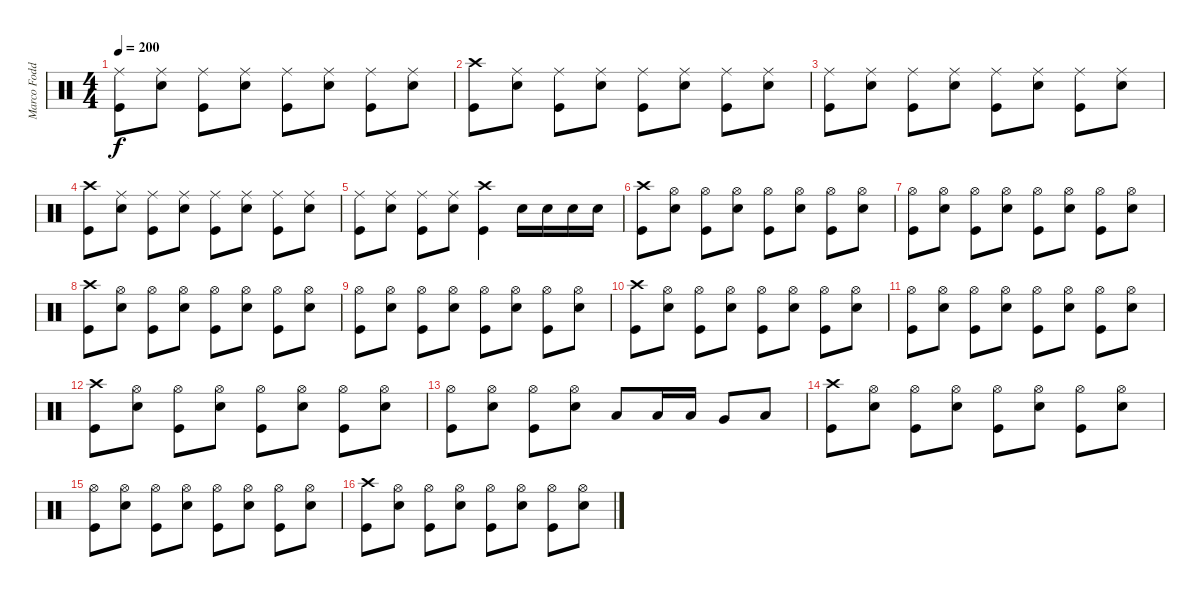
\track ("Marco Foddis" "Marco Fodd") {instrument percussion}
\staff {score}
\articulation defaults
\ts (4 4)
\tempo 200
\clef neutral
\ks c
("Ride (middle)" "Kick (hit)").8{dy f} ("Ride (middle)" "Snare (hit) 2").8 ("Ride (middle)" "Kick (hit)").8 ("Ride (middle)" "Snare (hit) 2").8 ("Ride (middle)" "Kick (hit)").8 ("Ride (middle)" "Snare (hit) 2").8 ("Ride (middle)" "Kick (hit)").8 ("Ride (middle)" "Snare (hit) 2").8 |
("Crash high (hit)" "Kick (hit)").8 ("Ride (middle)" "Snare (hit) 2").8 ("Ride (middle)" "Kick (hit)").8 ("Ride (middle)" "Snare (hit) 2").8 ("Ride (middle)" "Kick (hit)").8 ("Ride (middle)" "Snare (hit) 2").8 ("Ride (middle)" "Kick (hit)").8 ("Ride (middle)" "Snare (hit) 2").8 |
("Ride (middle)" "Kick (hit)").8 ("Ride (middle)" "Snare (hit) 2").8 ("Ride (middle)" "Kick (hit)").8 ("Ride (middle)" "Snare (hit) 2").8 ("Ride (middle)" "Kick (hit)").8 ("Ride (middle)" "Snare (hit) 2").8 ("Ride (middle)" "Kick (hit)").8 ("Ride (middle)" "Snare (hit) 2").8 |
("Crash high (hit)" "Kick (hit)").8 ("Ride (middle)" "Snare (hit) 2").8 ("Ride (middle)" "Kick (hit)").8 ("Ride (middle)" "Snare (hit) 2").8 ("Ride (middle)" "Kick (hit)").8 ("Ride (middle)" "Snare (hit) 2").8 ("Ride (middle)" "Kick (hit)").8 ("Ride (middle)" "Snare (hit) 2").8 |
("Ride (middle)" "Kick (hit)").8 ("Ride (middle)" "Snare (hit) 2").8 ("Ride (middle)" "Kick (hit)").8 ("Ride (middle)" "Snare (hit) 2").8 ("Crash high (hit)" "Kick (hit)").4 "Snare (hit) 2".16 "Snare (hit) 2".16 "Snare (hit) 2".16 "Snare (hit) 2".16 |
("Crash high (hit)" "Kick (hit)").8 ("Hi-Hat (open)" "Snare (hit) 2").8 ("Hi-Hat (open)" "Kick (hit)").8 ("Hi-Hat (open)" "Snare (hit) 2").8 ("Hi-Hat (open)" "Kick (hit)").8 ("Hi-Hat (open)" "Snare (hit) 2").8 ("Hi-Hat (open)" "Kick (hit)").8 ("Hi-Hat (open)" "Snare (hit) 2").8 |
("Hi-Hat (open)" "Kick (hit)").8 ("Hi-Hat (open)" "Snare (hit) 2").8 ("Hi-Hat (open)" "Kick (hit)").8 ("Hi-Hat (open)" "Snare (hit) 2").8 ("Hi-Hat (open)" "Kick (hit)").8 ("Hi-Hat (open)" "Snare (hit) 2").8 ("Hi-Hat (open)" "Kick (hit)").8 ("Hi-Hat (open)" "Snare (hit) 2").8 |
("Crash high (hit)" "Kick (hit)").8 ("Hi-Hat (open)" "Snare (hit) 2").8 ("Hi-Hat (open)" "Kick (hit)").8 ("Hi-Hat (open)" "Snare (hit) 2").8 ("Hi-Hat (open)" "Kick (hit)").8 ("Hi-Hat (open)" "Snare (hit) 2").8 ("Hi-Hat (open)" "Kick (hit)").8 ("Hi-Hat (open)" "Snare (hit) 2").8 |
("Hi-Hat (open)" "Kick (hit)").8 ("Hi-Hat (open)" "Snare (hit) 2").8 ("Hi-Hat (open)" "Kick (hit)").8 ("Hi-Hat (open)" "Snare (hit) 2").8 ("Hi-Hat (open)" "Kick (hit)").8 ("Hi-Hat (open)" "Snare (hit) 2").8 ("Hi-Hat (open)" "Kick (hit)").8 ("Hi-Hat (open)" "Snare (hit) 2").8 |
("Crash high (hit)" "Kick (hit)").8 ("Hi-Hat (open)" "Snare (hit) 2").8 ("Hi-Hat (open)" "Kick (hit)").8 ("Hi-Hat (open)" "Snare (hit) 2").8 ("Hi-Hat (open)" "Kick (hit)").8 ("Hi-Hat (open)" "Snare (hit) 2").8 ("Hi-Hat (open)" "Kick (hit)").8 ("Hi-Hat (open)" "Snare (hit) 2").8 |
("Hi-Hat (open)" "Kick (hit)").8 ("Hi-Hat (open)" "Snare (hit) 2").8 ("Hi-Hat (open)" "Kick (hit)").8 ("Hi-Hat (open)" "Snare (hit) 2").8 ("Hi-Hat (open)" "Kick (hit)").8 ("Hi-Hat (open)" "Snare (hit) 2").8 ("Hi-Hat (open)" "Kick (hit)").8 ("Hi-Hat (open)" "Snare (hit) 2").8 |
("Crash high (hit)" "Kick (hit)").8 ("Hi-Hat (open)" "Snare (hit) 2").8 ("Hi-Hat (open)" "Kick (hit)").8 ("Hi-Hat (open)" "Snare (hit) 2").8 ("Hi-Hat (open)" "Kick (hit)").8 ("Hi-Hat (open)" "Snare (hit) 2").8 ("Hi-Hat (open)" "Kick (hit)").8 ("Hi-Hat (open)" "Snare (hit) 2").8 |
("Hi-Hat (open)" "Kick (hit)").8 ("Hi-Hat (open)" "Snare (hit) 2").8 ("Hi-Hat (open)" "Kick (hit)").8 ("Hi-Hat (open)" "Snare (hit) 2").8 "Low Tom (hit)".8 "Low Tom (hit)".16 "Low Tom (hit)".16 "Very Low Tom (hit)".8 "Low Floor Tom (hit)".8 |
("Crash high (hit)" "Kick (hit)").8 ("Hi-Hat (open)" "Snare (hit) 2").8 ("Hi-Hat (open)" "Kick (hit)").8 ("Hi-Hat (open)" "Snare (hit) 2").8 ("Hi-Hat (open)" "Kick (hit)").8 ("Hi-Hat (open)" "Snare (hit) 2").8 ("Hi-Hat (open)" "Kick (hit)").8 ("Hi-Hat (open)" "Snare (hit) 2").8 |
("Hi-Hat (open)" "Kick (hit)").8 ("Hi-Hat (open)" "Snare (hit) 2").8 ("Hi-Hat (open)" "Kick (hit)").8 ("Hi-Hat (open)" "Snare (hit) 2").8 ("Hi-Hat (open)" "Kick (hit)").8 ("Hi-Hat (open)" "Snare (hit) 2").8 ("Hi-Hat (open)" "Kick (hit)").8 ("Hi-Hat (open)" "Snare (hit) 2").8 |
("Crash high (hit)" "Kick (hit)").8 ("Hi-Hat (open)" "Snare (hit) 2").8 ("Hi-Hat (open)" "Kick (hit)").8 ("Hi-Hat (open)" "Snare (hit) 2").8 ("Hi-Hat (open)" "Kick (hit)").8 ("Hi-Hat (open)" "Snare (hit) 2").8 ("Hi-Hat (open)" "Kick (hit)").8 ("Hi-Hat (open)" "Snare (hit) 2").8
